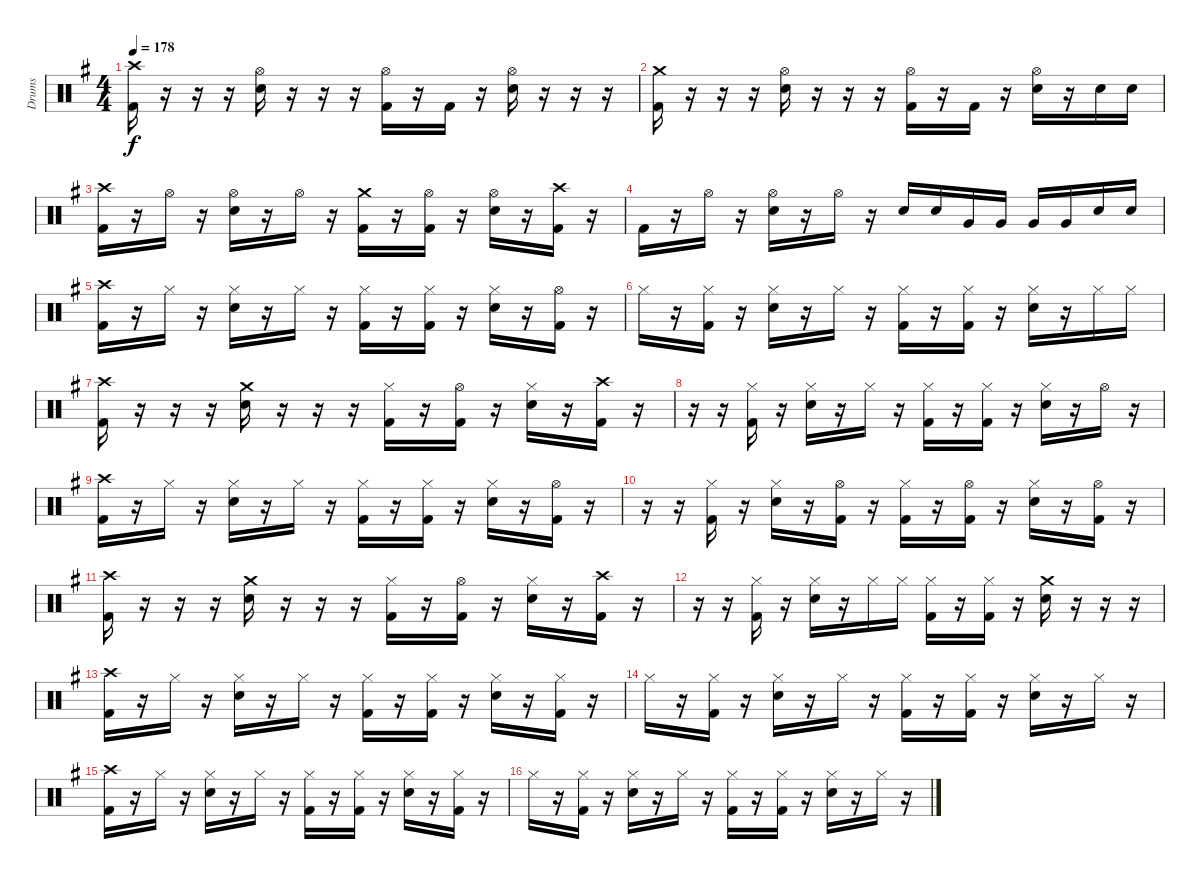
\track ("Drums" "Drums") {instrument percussion}
\staff {score}
\articulation defaults
\ts (4 4)
\tempo 178
\clef neutral
\ks g
("Crash high (hit)" "Kick (hit) 2").16{dy f} r.16 r.16 r.16 ("Hi-Hat (open)" "Electric Snare (hit)").16 r.16 r.16 r.16 ("Hi-Hat (open)" "Kick (hit) 2").16 r.16 "Kick (hit) 2".16 r.16 ("Hi-Hat (open)" "Electric Snare (hit)").16 r.16 r.16 r.16 |
("Crash medium (hit)" "Kick (hit) 2").16 r.16 r.16 r.16 ("Hi-Hat (open)" "Electric Snare (hit)").16 r.16 r.16 r.16 ("Hi-Hat (open)" "Kick (hit) 2").16 r.16 "Kick (hit) 2".16 r.16 ("Hi-Hat (open)" "Electric Snare (hit)").16 r.16 "Electric Snare (hit)".16 "Electric Snare (hit)".16 |
("Crash high (hit)" "Kick (hit) 2").16 r.16 "Hi-Hat (open)".16 r.16 ("Hi-Hat (open)" "Electric Snare (hit)").16 r.16 "Hi-Hat (open)".16 r.16 ("Crash medium (hit)" "Kick (hit) 2").16 r.16 ("Hi-Hat (open)" "Kick (hit) 2").16 r.16 ("Hi-Hat (open)" "Electric Snare (hit)").16 r.16 ("Crash high (hit)" "Kick (hit) 2").16 r.16 |
"Kick (hit) 2".16 r.16 "Hi-Hat (open)".16 r.16 ("Hi-Hat (open)" "Electric Snare (hit)").16 r.16 "Hi-Hat (open)".16 r.16 "Electric Snare (hit)".16 "Electric Snare (hit)".16 "Very Low Tom (hit)".16 "Very Low Tom (hit)".16 "Very Low Tom (hit)".16 "Very Low Tom (hit)".16 "Electric Snare (hit)".16 "Electric Snare (hit)".16 |
("Crash high (hit)" "Kick (hit) 2").16 r.16 "Hi-Hat (closed)".16 r.16 ("Hi-Hat (closed)" "Electric Snare (hit)").16 r.16 "Hi-Hat (closed)".16 r.16 ("Hi-Hat (closed)" "Kick (hit) 2").16 r.16 ("Hi-Hat (closed)" "Kick (hit) 2").16 r.16 ("Hi-Hat (closed)" "Electric Snare (hit)").16 r.16 ("Hi-Hat (open)" "Kick (hit) 2").16 r.16 |
"Hi-Hat (closed)".16 r.16 ("Hi-Hat (closed)" "Kick (hit) 2").16 r.16 ("Hi-Hat (closed)" "Electric Snare (hit)").16 r.16 "Hi-Hat (closed)".16 r.16 ("Hi-Hat (closed)" "Kick (hit) 2").16 r.16 ("Hi-Hat (closed)" "Kick (hit) 2").16 r.16 ("Hi-Hat (closed)" "Electric Snare (hit)").16 r.16 "Hi-Hat (closed)".16 "Hi-Hat (closed)".16 |
("Crash high (hit)" "Kick (hit) 2").16 r.16 r.16 r.16 ("Crash medium (hit)" "Electric Snare (hit)").16 r.16 r.16 r.16 ("Hi-Hat (closed)" "Kick (hit) 2").16 r.16 ("Hi-Hat (open)" "Kick (hit) 2").16 r.16 ("Hi-Hat (closed)" "Electric Snare (hit)").16 r.16 ("Crash high (hit)" "Kick (hit) 2").16 r.16 |
r.16 r.16 ("Hi-Hat (closed)" "Kick (hit) 2").16 r.16 ("Hi-Hat (closed)" "Electric Snare (hit)").16 r.16 "Hi-Hat (closed)".16 r.16 ("Hi-Hat (closed)" "Kick (hit) 2").16 r.16 ("Hi-Hat (closed)" "Kick (hit) 2").16 r.16 ("Hi-Hat (closed)" "Electric Snare (hit)").16 r.16 "Hi-Hat (open)".16 r.16 |
("Crash high (hit)" "Kick (hit) 2").16 r.16 "Hi-Hat (closed)".16 r.16 ("Hi-Hat (closed)" "Electric Snare (hit)").16 r.16 "Hi-Hat (closed)".16 r.16 ("Hi-Hat (closed)" "Kick (hit) 2").16 r.16 ("Hi-Hat (closed)" "Kick (hit) 2").16 r.16 ("Hi-Hat (closed)" "Electric Snare (hit)").16 r.16 ("Hi-Hat (open)" "Kick (hit) 2").16 r.16 |
r.16 r.16 ("Hi-Hat (closed)" "Kick (hit) 2").16 r.16 ("Hi-Hat (closed)" "Electric Snare (hit)").16 r.16 ("Hi-Hat (open)" "Kick (hit) 2").16 r.16 ("Hi-Hat (closed)" "Kick (hit) 2").16 r.16 ("Hi-Hat (open)" "Kick (hit) 2").16 r.16 ("Hi-Hat (closed)" "Electric Snare (hit)").16 r.16 ("Hi-Hat (open)" "Kick (hit) 2").16 r.16 |
("Crash high (hit)" "Kick (hit) 2").16 r.16 r.16 r.16 ("Crash medium (hit)" "Electric Snare (hit)").16 r.16 r.16 r.16 ("Hi-Hat (closed)" "Kick (hit) 2").16 r.16 ("Hi-Hat (open)" "Kick (hit) 2").16 r.16 ("Hi-Hat (closed)" "Electric Snare (hit)").16 r.16 ("Crash high (hit)" "Kick (hit) 2").16 r.16 |
r.16 r.16 ("Hi-Hat (closed)" "Kick (hit) 2").16 r.16 ("Hi-Hat (closed)" "Electric Snare (hit)").16 r.16 "Hi-Hat (closed)".16 "Hi-Hat (closed)".16 ("Hi-Hat (closed)" "Kick (hit) 2").16 r.16 ("Hi-Hat (closed)" "Kick (hit) 2").16 r.16 ("Crash medium (hit)" "Electric Snare (hit)").16 r.16 r.16 r.16 |
("Crash high (hit)" "Kick (hit) 2").16 r.16 "Hi-Hat (closed)".16 r.16 ("Hi-Hat (closed)" "Electric Snare (hit)").16 r.16 "Hi-Hat (closed)".16 r.16 ("Hi-Hat (closed)" "Kick (hit) 2").16 r.16 ("Hi-Hat (closed)" "Kick (hit) 2").16 r.16 ("Hi-Hat (closed)" "Electric Snare (hit)").16 r.16 ("Hi-Hat (closed)" "Kick (hit) 2").16 r.16 |
"Hi-Hat (closed)".16 r.16 ("Hi-Hat (closed)" "Kick (hit) 2").16 r.16 ("Hi-Hat (closed)" "Electric Snare (hit)").16 r.16 "Hi-Hat (closed)".16 r.16 ("Hi-Hat (closed)" "Kick (hit) 2").16 r.16 ("Hi-Hat (closed)" "Kick (hit) 2").16 r.16 ("Hi-Hat (closed)" "Electric Snare (hit)").16 r.16 "Hi-Hat (closed)".16 r.16 |
("Crash high (hit)" "Kick (hit) 2").16 r.16 "Hi-Hat (closed)".16 r.16 ("Hi-Hat (closed)" "Electric Snare (hit)").16 r.16 "Hi-Hat (closed)".16 r.16 ("Hi-Hat (closed)" "Kick (hit) 2").16 r.16 ("Hi-Hat (closed)" "Kick (hit) 2").16 r.16 ("Hi-Hat (closed)" "Electric Snare (hit)").16 r.16 ("Hi-Hat (closed)" "Kick (hit) 2").16 r.16 |
"Hi-Hat (closed)".16 r.16 ("Hi-Hat (closed)" "Kick (hit) 2").16 r.16 ("Hi-Hat (closed)" "Electric Snare (hit)").16 r.16 "Hi-Hat (closed)".16 r.16 ("Hi-Hat (closed)" "Kick (hit) 2").16 r.16 ("Hi-Hat (closed)" "Kick (hit) 2").16 r.16 ("Hi-Hat (closed)" "Electric Snare (hit)").16 r.16 "Hi-Hat (closed)".16 r.16
